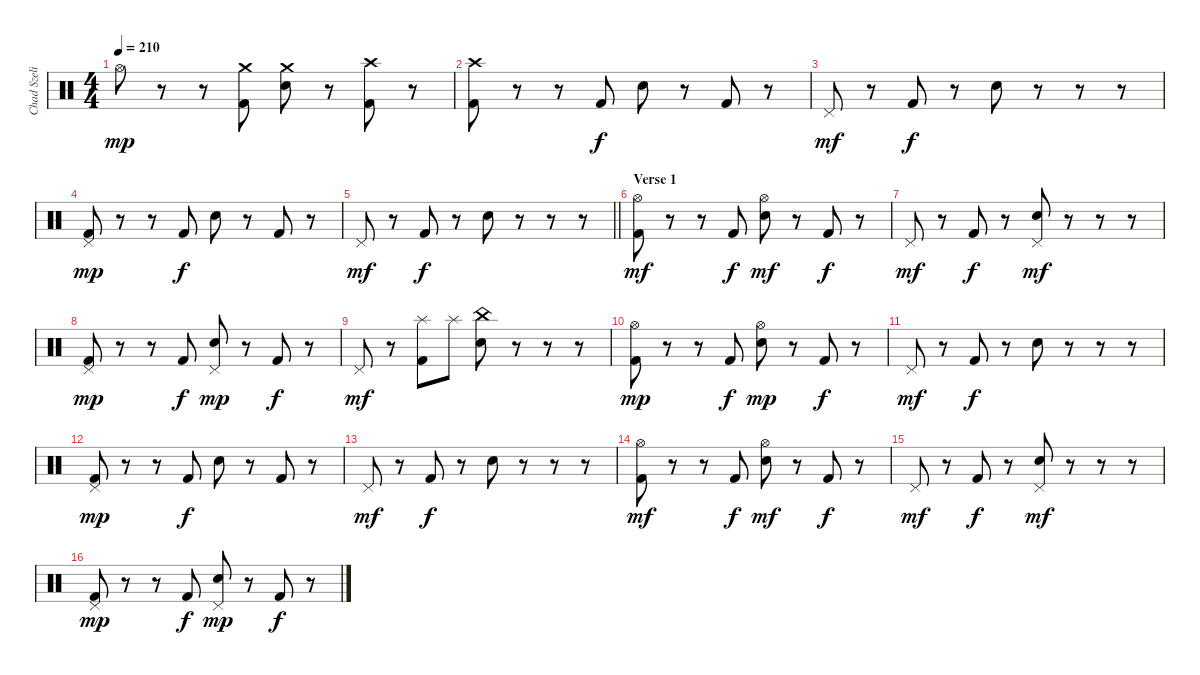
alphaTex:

\track ("Chad Szeliga" "Chad Szeli") {instrument percussion}
\staff {score}
\articulation defaults
\ts (4 4)
\tempo 210
\clef neutral
\ks c "Hi-Hat (open)".8{dy mp}
r.8 r.8 ("Kick (hit) 2" "Crash medium (hit)").8 ("Snare (hit) 2" "Crash medium (hit)").8 r.8 ("Kick (hit) 2" "Crash high (hit)").8 r.8 |
("Kick (hit) 2" "Crash high (hit)").8 r.8 r.8 "Kick (hit) 2".8{dy f} "Snare (hit) 2".8 r.8 "Kick (hit) 2".8 r.8 |
"Pedal Hi-Hat (hit)".8{dy mf} r.8 "Kick (hit) 2".8{dy f} r.8 "Snare (hit) 2".8 r.8 r.8 r.8 |
("Kick (hit) 2" "Pedal Hi-Hat (hit)").8{dy mp} r.8 r.8 "Kick (hit) 2".8{dy f} "Snare (hit) 2".8 r.8 "Kick (hit) 2".8 r.8 |
\barLineRight lightlight "Pedal Hi-Hat (hit)".8{dy mf}
r.8 "Kick (hit) 2".8{dy f} r.8 "Snare (hit) 2".8 r.8 r.8 r.8 |
\section ("" "Verse 1")
("Kick (hit) 2" "Hi-Hat (open)").8{dy mf} r.8 r.8 "Kick (hit) 2".8{dy f} ("Snare (hit) 2" "Hi-Hat (open)").8{dy mf} r.8 "Kick (hit) 2".8{dy f} r.8 |
"Pedal Hi-Hat (hit)".8{dy mf} r.8 "Kick (hit) 2".8{dy f} r.8 ("Snare (hit) 2" "Pedal Hi-Hat (hit)").8{dy mf} r.8 r.8 r.8 |
("Kick (hit) 2" "Pedal Hi-Hat (hit)").8{dy mp} r.8 r.8 "Kick (hit) 2".8{dy f} ("Snare (hit) 2" "Pedal Hi-Hat (hit)").8{dy mp} r.8 "Kick (hit) 2".8{dy f} r.8 |
"Pedal Hi-Hat (hit)".8{dy mf} r.8 ("Kick (hit) 2" "Splash (hit)").8 "Splash (hit)".8 ("Snare (hit) 2" "China (hit)").8 r.8 r.8 r.8 |
("Kick (hit) 2" "Hi-Hat (open)").8{dy mp} r.8 r.8 "Kick (hit) 2".8{dy f} ("Snare (hit) 2" "Hi-Hat (open)").8{dy mp} r.8 "Kick (hit) 2".8{dy f} r.8 |
"Pedal Hi-Hat (hit)".8{dy mf} r.8 "Kick (hit) 2".8{dy f} r.8 "Snare (hit) 2".8 r.8 r.8 r.8 |
("Kick (hit) 2" "Pedal Hi-Hat (hit)").8{dy mp} r.8 r.8 "Kick (hit) 2".8{dy f} "Snare (hit) 2".8 r.8 "Kick (hit) 2".8 r.8 |
"Pedal Hi-Hat (hit)".8{dy mf} r.8 "Kick (hit) 2".8{dy f} r.8 "Snare (hit) 2".8 r.8 r.8 r.8 |
("Kick (hit) 2" "Hi-Hat (open)").8{dy mf} r.8 r.8 "Kick (hit) 2".8{dy f} ("Snare (hit) 2" "Hi-Hat (open)").8{dy mf} r.8 "Kick (hit) 2".8{dy f} r.8 |
"Pedal Hi-Hat (hit)".8{dy mf} r.8 "Kick (hit) 2".8{dy f} r.8 ("Snare (hit) 2" "Pedal Hi-Hat (hit)").8{dy mf} r.8 r.8 r.8 |
("Kick (hit) 2" "Pedal Hi-Hat (hit)").8{dy mp} r.8 r.8 "Kick (hit) 2".8{dy f} ("Snare (hit) 2" "Pedal Hi-Hat (hit)").8{dy mp} r.8 "Kick (hit) 2".8{dy f} r.8
